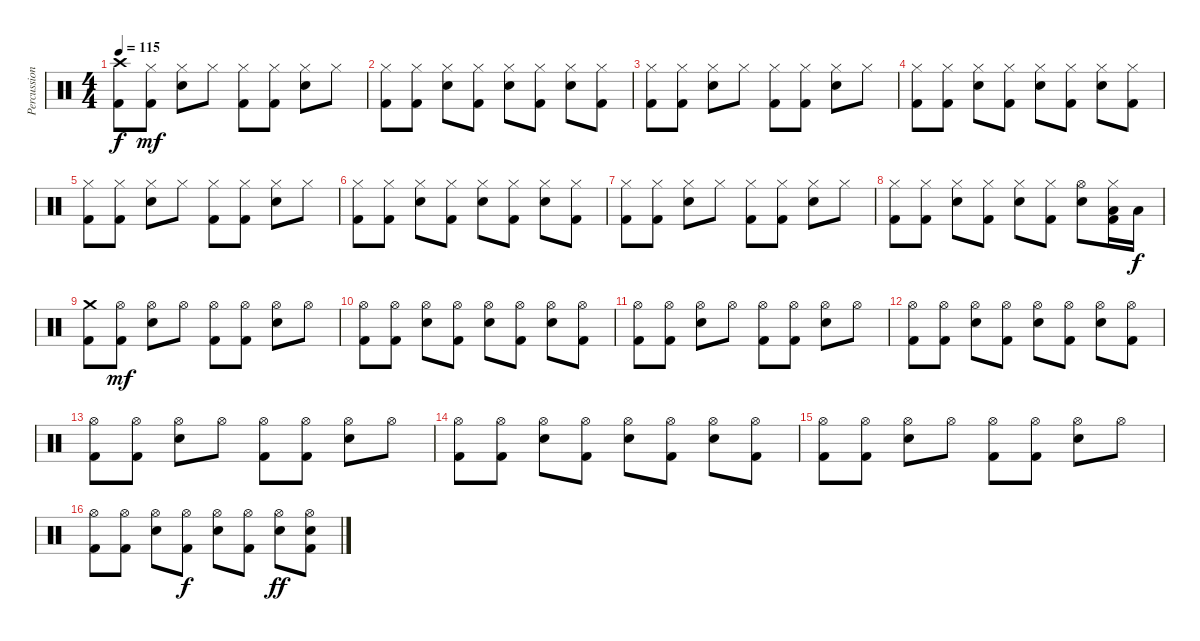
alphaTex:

\track ("Percussion" "Percussion") {instrument percussion}
\staff {score}
\articulation defaults
\ts (4 4)
\tempo 115
\clef neutral
\ks c
("Crash high (hit)" "Kick (hit) 2").8{dy f} ("Hi-Hat (closed)" "Kick (hit) 2").8{dy mf} ("Hi-Hat (closed)" "Electric Snare (hit)").8 "Hi-Hat (closed)".8 ("Hi-Hat (closed)" "Kick (hit) 2").8 ("Hi-Hat (closed)" "Kick (hit) 2").8 ("Hi-Hat (closed)" "Electric Snare (hit)").8 "Hi-Hat (closed)".8 |
("Hi-Hat (closed)" "Kick (hit) 2").8 ("Hi-Hat (closed)" "Kick (hit) 2").8 ("Hi-Hat (closed)" "Electric Snare (hit)").8 ("Hi-Hat (closed)" "Kick (hit) 2").8 ("Hi-Hat (closed)" "Electric Snare (hit)").8 ("Hi-Hat (closed)" "Kick (hit) 2").8 ("Hi-Hat (closed)" "Electric Snare (hit)").8 ("Hi-Hat (closed)" "Kick (hit) 2").8 |
("Hi-Hat (closed)" "Kick (hit) 2").8 ("Hi-Hat (closed)" "Kick (hit) 2").8 ("Hi-Hat (closed)" "Electric Snare (hit)").8 "Hi-Hat (closed)".8 ("Hi-Hat (closed)" "Kick (hit) 2").8 ("Hi-Hat (closed)" "Kick (hit) 2").8 ("Hi-Hat (closed)" "Electric Snare (hit)").8 "Hi-Hat (closed)".8 |
("Hi-Hat (closed)" "Kick (hit) 2").8 ("Hi-Hat (closed)" "Kick (hit) 2").8 ("Hi-Hat (closed)" "Electric Snare (hit)").8 ("Hi-Hat (closed)" "Kick (hit) 2").8 ("Hi-Hat (closed)" "Electric Snare (hit)").8 ("Hi-Hat (closed)" "Kick (hit) 2").8 ("Hi-Hat (closed)" "Electric Snare (hit)").8 ("Hi-Hat (closed)" "Kick (hit) 2").8 |
("Hi-Hat (closed)" "Kick (hit) 2").8 ("Hi-Hat (closed)" "Kick (hit) 2").8 ("Hi-Hat (closed)" "Electric Snare (hit)").8 "Hi-Hat (closed)".8 ("Hi-Hat (closed)" "Kick (hit) 2").8 ("Hi-Hat (closed)" "Kick (hit) 2").8 ("Hi-Hat (closed)" "Electric Snare (hit)").8 "Hi-Hat (closed)".8 |
("Hi-Hat (closed)" "Kick (hit) 2").8 ("Hi-Hat (closed)" "Kick (hit) 2").8 ("Hi-Hat (closed)" "Electric Snare (hit)").8 ("Hi-Hat (closed)" "Kick (hit) 2").8 ("Hi-Hat (closed)" "Electric Snare (hit)").8 ("Hi-Hat (closed)" "Kick (hit) 2").8 ("Hi-Hat (closed)" "Electric Snare (hit)").8 ("Hi-Hat (closed)" "Kick (hit) 2").8 |
("Hi-Hat (closed)" "Kick (hit) 2").8 ("Hi-Hat (closed)" "Kick (hit) 2").8 ("Hi-Hat (closed)" "Electric Snare (hit)").8 "Hi-Hat (closed)".8 ("Hi-Hat (closed)" "Kick (hit) 2").8 ("Hi-Hat (closed)" "Kick (hit) 2").8 ("Hi-Hat (closed)" "Electric Snare (hit)").8 "Hi-Hat (closed)".8 |
("Hi-Hat (closed)" "Kick (hit) 2").8 ("Hi-Hat (closed)" "Kick (hit) 2").8 ("Hi-Hat (closed)" "Electric Snare (hit)").8 ("Hi-Hat (closed)" "Kick (hit) 2").8 ("Hi-Hat (closed)" "Electric Snare (hit)").8 ("Hi-Hat (closed)" "Kick (hit) 2").8 ("Hi-Hat (open)" "Electric Snare (hit)").8 ("Hi-Hat (closed)" "Low Tom (hit)" "Kick (hit) 2").16 "Low Tom (hit)".16{dy f} |
("Crash medium (hit)" "Kick (hit) 2").8 ("Hi-Hat (open)" "Kick (hit) 2").8{dy mf} ("Hi-Hat (open)" "Electric Snare (hit)").8 "Hi-Hat (open)".8 ("Hi-Hat (open)" "Kick (hit) 2").8 ("Hi-Hat (open)" "Kick (hit) 2").8 ("Hi-Hat (open)" "Electric Snare (hit)").8 "Hi-Hat (open)".8 |
("Hi-Hat (open)" "Kick (hit) 2").8 ("Hi-Hat (open)" "Kick (hit) 2").8 ("Hi-Hat (open)" "Electric Snare (hit)").8 ("Hi-Hat (open)" "Kick (hit) 2").8 ("Hi-Hat (open)" "Electric Snare (hit)").8 ("Hi-Hat (open)" "Kick (hit) 2").8 ("Hi-Hat (open)" "Electric Snare (hit)").8 ("Hi-Hat (open)" "Kick (hit) 2").8 |
("Hi-Hat (open)" "Kick (hit) 2").8 ("Hi-Hat (open)" "Kick (hit) 2").8 ("Hi-Hat (open)" "Electric Snare (hit)").8 "Hi-Hat (open)".8 ("Hi-Hat (open)" "Kick (hit) 2").8 ("Hi-Hat (open)" "Kick (hit) 2").8 ("Hi-Hat (open)" "Electric Snare (hit)").8 "Hi-Hat (open)".8 |
("Hi-Hat (open)" "Kick (hit) 2").8 ("Hi-Hat (open)" "Kick (hit) 2").8 ("Hi-Hat (open)" "Electric Snare (hit)").8 ("Hi-Hat (open)" "Kick (hit) 2").8 ("Hi-Hat (open)" "Electric Snare (hit)").8 ("Hi-Hat (open)" "Kick (hit) 2").8 ("Hi-Hat (open)" "Electric Snare (hit)").8 ("Hi-Hat (open)" "Kick (hit) 2").8 |
("Hi-Hat (open)" "Kick (hit) 2").8 ("Hi-Hat (open)" "Kick (hit) 2").8 ("Hi-Hat (open)" "Electric Snare (hit)").8 "Hi-Hat (open)".8 ("Hi-Hat (open)" "Kick (hit) 2").8 ("Hi-Hat (open)" "Kick (hit) 2").8 ("Hi-Hat (open)" "Electric Snare (hit)").8 "Hi-Hat (open)".8 |
("Hi-Hat (open)" "Kick (hit) 2").8 ("Hi-Hat (open)" "Kick (hit) 2").8 ("Hi-Hat (open)" "Electric Snare (hit)").8 ("Hi-Hat (open)" "Kick (hit) 2").8 ("Hi-Hat (open)" "Electric Snare (hit)").8 ("Hi-Hat (open)" "Kick (hit) 2").8 ("Hi-Hat (open)" "Electric Snare (hit)").8 ("Hi-Hat (open)" "Kick (hit) 2").8 |
("Hi-Hat (open)" "Kick (hit) 2").8 ("Hi-Hat (open)" "Kick (hit) 2").8 ("Hi-Hat (open)" "Electric Snare (hit)").8 "Hi-Hat (open)".8 ("Hi-Hat (open)" "Kick (hit) 2").8 ("Hi-Hat (open)" "Kick (hit) 2").8 ("Hi-Hat (open)" "Electric Snare (hit)").8 "Hi-Hat (open)".8 |
("Hi-Hat (open)" "Kick (hit) 2").8 ("Hi-Hat (open)" "Kick (hit) 2").8 ("Hi-Hat (open)" "Electric Snare (hit)").8 ("Hi-Hat (open)" "Kick (hit) 2").8{dy f} ("Hi-Hat (open)" "Electric Snare (hit)").8 ("Hi-Hat (open)" "Kick (hit) 2").8 ("Hi-Hat (open)" "Electric Snare (hit)").8{dy ff} ("Hi-Hat (open)" "Electric Snare (hit)" "Kick (hit) 2").8
